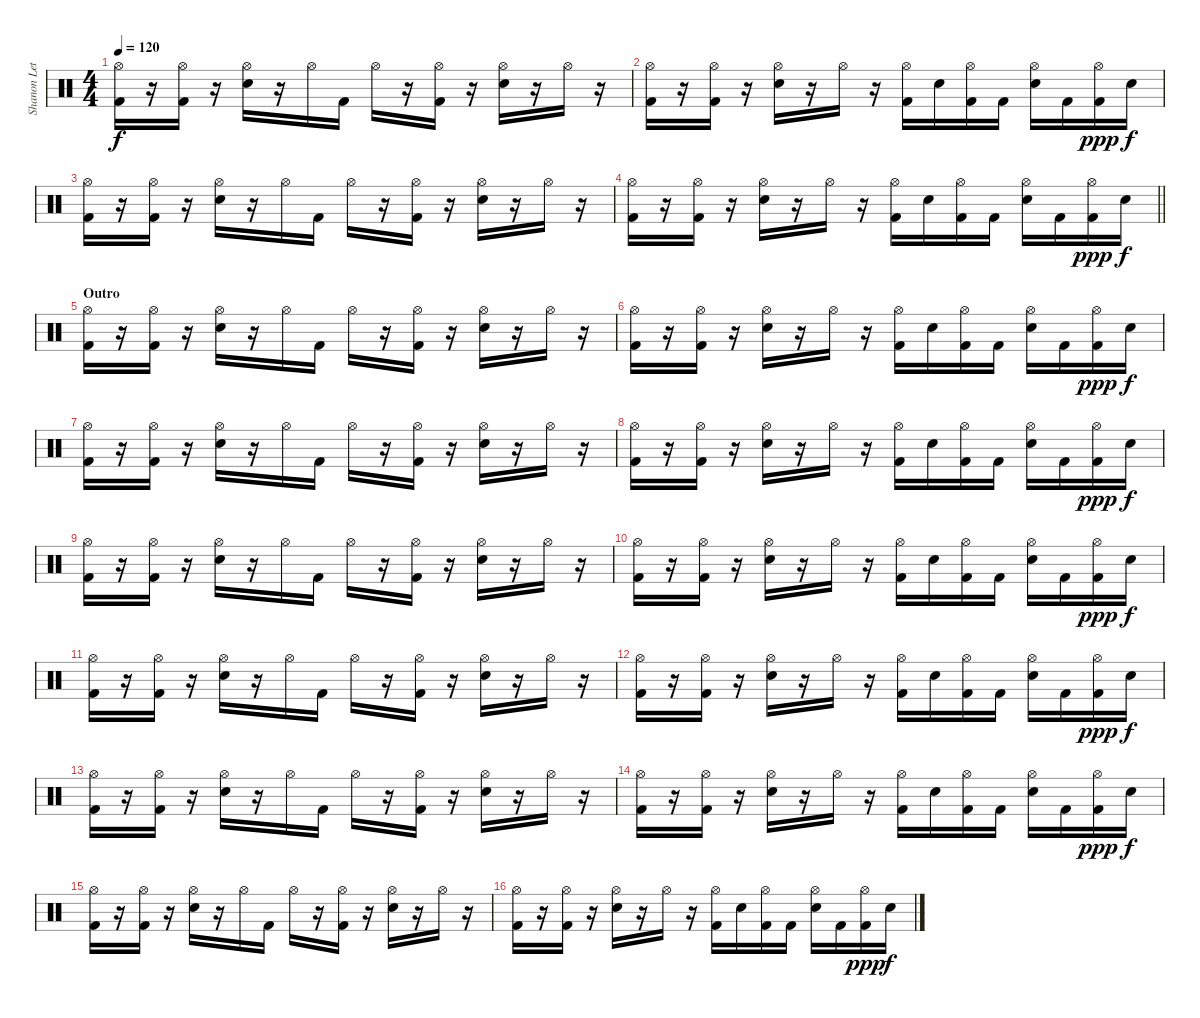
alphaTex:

\track ("Shanon Leto(Drums)" "Shanon Let") {instrument percussion}
\staff {score}
\articulation defaults
\ts (4 4)
\tempo 120
\clef neutral
\ks c
("Hi-Hat (open)" "Kick (hit) 2").16{dy f} r.16 ("Hi-Hat (open)" "Kick (hit) 2").16 r.16 ("Hi-Hat (open)" "Electric Snare (hit)").16 r.16 "Hi-Hat (open)".16 "Kick (hit) 2".16 "Hi-Hat (open)".16 r.16 ("Hi-Hat (open)" "Kick (hit) 2").16 r.16 ("Hi-Hat (open)" "Electric Snare (hit)").16 r.16 "Hi-Hat (open)".16 r.16 |
("Hi-Hat (open)" "Kick (hit) 2").16 r.16 ("Hi-Hat (open)" "Kick (hit) 2").16 r.16 ("Hi-Hat (open)" "Electric Snare (hit)").16 r.16 "Hi-Hat (open)".16 r.16 ("Hi-Hat (open)" "Kick (hit) 2").16 "Electric Snare (hit)".16 ("Hi-Hat (open)" "Kick (hit) 2").16 "Kick (hit) 2".16 ("Hi-Hat (open)" "Electric Snare (hit)").16 "Kick (hit) 2".16 ("Hi-Hat (open)" "Kick (hit) 2").16{dy ppp} "Electric Snare (hit)".16{dy f} |
("Hi-Hat (open)" "Kick (hit) 2").16 r.16 ("Hi-Hat (open)" "Kick (hit) 2").16 r.16 ("Hi-Hat (open)" "Electric Snare (hit)").16 r.16 "Hi-Hat (open)".16 "Kick (hit) 2".16 "Hi-Hat (open)".16 r.16 ("Hi-Hat (open)" "Kick (hit) 2").16 r.16 ("Hi-Hat (open)" "Electric Snare (hit)").16 r.16 "Hi-Hat (open)".16 r.16 |
\barLineRight lightlight
("Hi-Hat (open)" "Kick (hit) 2").16 r.16 ("Hi-Hat (open)" "Kick (hit) 2").16 r.16 ("Hi-Hat (open)" "Electric Snare (hit)").16 r.16 "Hi-Hat (open)".16 r.16 ("Hi-Hat (open)" "Kick (hit) 2").16 "Electric Snare (hit)".16 ("Hi-Hat (open)" "Kick (hit) 2").16 "Kick (hit) 2".16 ("Hi-Hat (open)" "Electric Snare (hit)").16 "Kick (hit) 2".16 ("Hi-Hat (open)" "Kick (hit) 2").16{dy ppp} "Electric Snare (hit)".16{dy f} |
\section ("" "Outro")
("Hi-Hat (open)" "Kick (hit) 2").16 r.16 ("Hi-Hat (open)" "Kick (hit) 2").16 r.16 ("Hi-Hat (open)" "Electric Snare (hit)").16 r.16 "Hi-Hat (open)".16 "Kick (hit) 2".16 "Hi-Hat (open)".16 r.16 ("Hi-Hat (open)" "Kick (hit) 2").16 r.16 ("Hi-Hat (open)" "Electric Snare (hit)").16 r.16 "Hi-Hat (open)".16 r.16 |
("Hi-Hat (open)" "Kick (hit) 2").16 r.16 ("Hi-Hat (open)" "Kick (hit) 2").16 r.16 ("Hi-Hat (open)" "Electric Snare (hit)").16 r.16 "Hi-Hat (open)".16 r.16 ("Hi-Hat (open)" "Kick (hit) 2").16 "Electric Snare (hit)".16 ("Hi-Hat (open)" "Kick (hit) 2").16 "Kick (hit) 2".16 ("Hi-Hat (open)" "Electric Snare (hit)").16 "Kick (hit) 2".16 ("Hi-Hat (open)" "Kick (hit) 2").16{dy ppp} "Electric Snare (hit)".16{dy f} |
("Hi-Hat (open)" "Kick (hit) 2").16 r.16 ("Hi-Hat (open)" "Kick (hit) 2").16 r.16 ("Hi-Hat (open)" "Electric Snare (hit)").16 r.16 "Hi-Hat (open)".16 "Kick (hit) 2".16 "Hi-Hat (open)".16 r.16 ("Hi-Hat (open)" "Kick (hit) 2").16 r.16 ("Hi-Hat (open)" "Electric Snare (hit)").16 r.16 "Hi-Hat (open)".16 r.16 |
("Hi-Hat (open)" "Kick (hit) 2").16 r.16 ("Hi-Hat (open)" "Kick (hit) 2").16 r.16 ("Hi-Hat (open)" "Electric Snare (hit)").16 r.16 "Hi-Hat (open)".16 r.16 ("Hi-Hat (open)" "Kick (hit) 2").16 "Electric Snare (hit)".16 ("Hi-Hat (open)" "Kick (hit) 2").16 "Kick (hit) 2".16 ("Hi-Hat (open)" "Electric Snare (hit)").16 "Kick (hit) 2".16 ("Hi-Hat (open)" "Kick (hit) 2").16{dy ppp} "Electric Snare (hit)".16{dy f} |
("Hi-Hat (open)" "Kick (hit) 2").16 r.16 ("Hi-Hat (open)" "Kick (hit) 2").16 r.16 ("Hi-Hat (open)" "Electric Snare (hit)").16 r.16 "Hi-Hat (open)".16 "Kick (hit) 2".16 "Hi-Hat (open)".16 r.16 ("Hi-Hat (open)" "Kick (hit) 2").16 r.16 ("Hi-Hat (open)" "Electric Snare (hit)").16 r.16 "Hi-Hat (open)".16 r.16 |
("Hi-Hat (open)" "Kick (hit) 2").16 r.16 ("Hi-Hat (open)" "Kick (hit) 2").16 r.16 ("Hi-Hat (open)" "Electric Snare (hit)").16 r.16 "Hi-Hat (open)".16 r.16 ("Hi-Hat (open)" "Kick (hit) 2").16 "Electric Snare (hit)".16 ("Hi-Hat (open)" "Kick (hit) 2").16 "Kick (hit) 2".16 ("Hi-Hat (open)" "Electric Snare (hit)").16 "Kick (hit) 2".16 ("Hi-Hat (open)" "Kick (hit) 2").16{dy ppp} "Electric Snare (hit)".16{dy f} |
("Hi-Hat (open)" "Kick (hit) 2").16 r.16 ("Hi-Hat (open)" "Kick (hit) 2").16 r.16 ("Hi-Hat (open)" "Electric Snare (hit)").16 r.16 "Hi-Hat (open)".16 "Kick (hit) 2".16 "Hi-Hat (open)".16 r.16 ("Hi-Hat (open)" "Kick (hit) 2").16 r.16 ("Hi-Hat (open)" "Electric Snare (hit)").16 r.16 "Hi-Hat (open)".16 r.16 |
("Hi-Hat (open)" "Kick (hit) 2").16 r.16 ("Hi-Hat (open)" "Kick (hit) 2").16 r.16 ("Hi-Hat (open)" "Electric Snare (hit)").16 r.16 "Hi-Hat (open)".16 r.16 ("Hi-Hat (open)" "Kick (hit) 2").16 "Electric Snare (hit)".16 ("Hi-Hat (open)" "Kick (hit) 2").16 "Kick (hit) 2".16 ("Hi-Hat (open)" "Electric Snare (hit)").16 "Kick (hit) 2".16 ("Hi-Hat (open)" "Kick (hit) 2").16{dy ppp} "Electric Snare (hit)".16{dy f} |
("Hi-Hat (open)" "Kick (hit) 2").16 r.16 ("Hi-Hat (open)" "Kick (hit) 2").16 r.16 ("Hi-Hat (open)" "Electric Snare (hit)").16 r.16 "Hi-Hat (open)".16 "Kick (hit) 2".16 "Hi-Hat (open)".16 r.16 ("Hi-Hat (open)" "Kick (hit) 2").16 r.16 ("Hi-Hat (open)" "Electric Snare (hit)").16 r.16 "Hi-Hat (open)".16 r.16 |
("Hi-Hat (open)" "Kick (hit) 2").16 r.16 ("Hi-Hat (open)" "Kick (hit) 2").16 r.16 ("Hi-Hat (open)" "Electric Snare (hit)").16 r.16 "Hi-Hat (open)".16 r.16 ("Hi-Hat (open)" "Kick (hit) 2").16 "Electric Snare (hit)".16 ("Hi-Hat (open)" "Kick (hit) 2").16 "Kick (hit) 2".16 ("Hi-Hat (open)" "Electric Snare (hit)").16 "Kick (hit) 2".16 ("Hi-Hat (open)" "Kick (hit) 2").16{dy ppp} "Electric Snare (hit)".16{dy f} |
("Hi-Hat (open)" "Kick (hit) 2").16 r.16 ("Hi-Hat (open)" "Kick (hit) 2").16 r.16 ("Hi-Hat (open)" "Electric Snare (hit)").16 r.16 "Hi-Hat (open)".16 "Kick (hit) 2".16 "Hi-Hat (open)".16 r.16 ("Hi-Hat (open)" "Kick (hit) 2").16 r.16 ("Hi-Hat (open)" "Electric Snare (hit)").16 r.16 "Hi-Hat (open)".16 r.16 |
("Hi-Hat (open)" "Kick (hit) 2").16 r.16 ("Hi-Hat (open)" "Kick (hit) 2").16 r.16 ("Hi-Hat (open)" "Electric Snare (hit)").16 r.16 "Hi-Hat (open)".16 r.16 ("Hi-Hat (open)" "Kick (hit) 2").16 "Electric Snare (hit)".16 ("Hi-Hat (open)" "Kick (hit) 2").16 "Kick (hit) 2".16 ("Hi-Hat (open)" "Electric Snare (hit)").16 "Kick (hit) 2".16 ("Hi-Hat (open)" "Kick (hit) 2").16{dy ppp} "Electric Snare (hit)".16{dy f}
